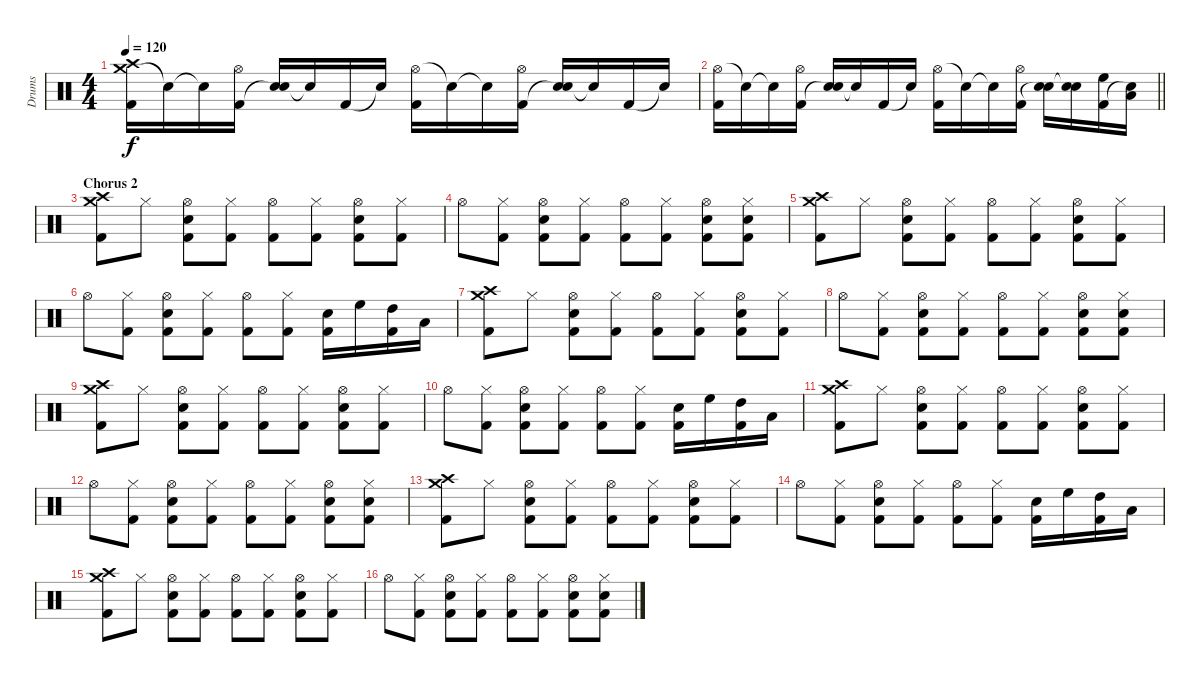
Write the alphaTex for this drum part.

\track ("Drums" "Drums") {instrument percussion}
\staff {score}
\articulation defaults
\ts (4 4)
\tempo 120
\clef neutral
\ks c
("Crash medium (hit)" "Crash high (hit)" "Kick (hit) 2").16{dy f} "Snare (hit)"{t}.16 "Snare (hit)"{t}.16 ("Hi-Hat (open)" "Kick (hit) 2").16 ("Electric Snare (hit)" "Snare (hit)"{t}).16 "Snare (hit)"{t}.16 "Kick (hit) 2".16 "Snare (hit)"{t}.16 ("Hi-Hat (open)" "Kick (hit) 2").16 "Snare (hit)"{t}.16 "Snare (hit)"{t}.16 ("Hi-Hat (open)" "Kick (hit) 2").16 ("Electric Snare (hit)" "Snare (hit)"{t}).16 "Snare (hit)"{t}.16 "Kick (hit) 2".16 "Snare (hit)"{t}.16 |
\barLineRight lightlight
("Hi-Hat (open)" "Kick (hit) 2").16 "Snare (hit)"{t}.16 "Snare (hit)"{t}.16 ("Hi-Hat (open)" "Kick (hit) 2").16 ("Electric Snare (hit)" "Snare (hit)"{t}).16 "Snare (hit)"{t}.16 "Kick (hit) 2".16 "Snare (hit)"{t}.16 ("Hi-Hat (open)" "Kick (hit) 2").16 "Snare (hit)"{t}.16 "Snare (hit)"{t}.16 ("Hi-Hat (open)" "Kick (hit) 2").16 ("Electric Snare (hit)" "Snare (hit)"{t}).16 ("Electric Snare (hit)" "Snare (hit)"{t}).16 ("High Floor Tom (hit)" "Kick (hit) 2").16 ("Low Tom (hit)" "Snare (hit)"{t}).16 |
\section ("" "Chorus 2")
("Crash medium (hit)" "Crash high (hit)" "Kick (hit) 2").8 "Hi-Hat (closed)".8 ("Hi-Hat (open)" "Electric Snare (hit)" "Kick (hit) 2").8 ("Hi-Hat (closed)" "Kick (hit) 2").8 ("Hi-Hat (open)" "Kick (hit) 2").8 ("Hi-Hat (closed)" "Kick (hit) 2").8 ("Hi-Hat (open)" "Electric Snare (hit)" "Kick (hit) 2").8 ("Hi-Hat (closed)" "Kick (hit) 2").8 |
"Hi-Hat (open)".8 ("Hi-Hat (closed)" "Kick (hit) 2").8 ("Hi-Hat (open)" "Electric Snare (hit)" "Kick (hit) 2").8 ("Hi-Hat (closed)" "Kick (hit) 2").8 ("Hi-Hat (open)" "Kick (hit) 2").8 ("Hi-Hat (closed)" "Kick (hit) 2").8 ("Hi-Hat (open)" "Electric Snare (hit)" "Kick (hit) 2").8 ("Hi-Hat (closed)" "Electric Snare (hit)" "Kick (hit) 2").8 |
("Crash medium (hit)" "Crash high (hit)" "Kick (hit) 2").8 "Hi-Hat (closed)".8 ("Hi-Hat (open)" "Electric Snare (hit)" "Kick (hit) 2").8 ("Hi-Hat (closed)" "Kick (hit) 2").8 ("Hi-Hat (open)" "Kick (hit) 2").8 ("Hi-Hat (closed)" "Kick (hit) 2").8 ("Hi-Hat (open)" "Electric Snare (hit)" "Kick (hit) 2").8 ("Hi-Hat (closed)" "Kick (hit) 2").8 |
"Hi-Hat (open)".8 ("Hi-Hat (closed)" "Kick (hit) 2").8 ("Hi-Hat (open)" "Electric Snare (hit)" "Kick (hit) 2").8 ("Hi-Hat (closed)" "Kick (hit) 2").8 ("Hi-Hat (open)" "Kick (hit) 2").8 ("Hi-Hat (closed)" "Kick (hit) 2").8 ("Electric Snare (hit)" "Kick (hit) 2").16 "High Floor Tom (hit)".16 ("High Tom (hit)" "Kick (hit) 2").16 "Low Tom (hit)".16 |
("Crash medium (hit)" "Crash high (hit)" "Kick (hit) 2").8 "Hi-Hat (closed)".8 ("Hi-Hat (open)" "Electric Snare (hit)" "Kick (hit) 2").8 ("Hi-Hat (closed)" "Kick (hit) 2").8 ("Hi-Hat (open)" "Kick (hit) 2").8 ("Hi-Hat (closed)" "Kick (hit) 2").8 ("Hi-Hat (open)" "Electric Snare (hit)" "Kick (hit) 2").8 ("Hi-Hat (closed)" "Kick (hit) 2").8 |
"Hi-Hat (open)".8 ("Hi-Hat (closed)" "Kick (hit) 2").8 ("Hi-Hat (open)" "Electric Snare (hit)" "Kick (hit) 2").8 ("Hi-Hat (closed)" "Kick (hit) 2").8 ("Hi-Hat (open)" "Kick (hit) 2").8 ("Hi-Hat (closed)" "Kick (hit) 2").8 ("Hi-Hat (open)" "Electric Snare (hit)" "Kick (hit) 2").8 ("Hi-Hat (closed)" "Electric Snare (hit)" "Kick (hit) 2").8 |
("Crash medium (hit)" "Crash high (hit)" "Kick (hit) 2").8 "Hi-Hat (closed)".8 ("Hi-Hat (open)" "Electric Snare (hit)" "Kick (hit) 2").8 ("Hi-Hat (closed)" "Kick (hit) 2").8 ("Hi-Hat (open)" "Kick (hit) 2").8 ("Hi-Hat (closed)" "Kick (hit) 2").8 ("Hi-Hat (open)" "Electric Snare (hit)" "Kick (hit) 2").8 ("Hi-Hat (closed)" "Kick (hit) 2").8 |
"Hi-Hat (open)".8 ("Hi-Hat (closed)" "Kick (hit) 2").8 ("Hi-Hat (open)" "Electric Snare (hit)" "Kick (hit) 2").8 ("Hi-Hat (closed)" "Kick (hit) 2").8 ("Hi-Hat (open)" "Kick (hit) 2").8 ("Hi-Hat (closed)" "Kick (hit) 2").8 ("Electric Snare (hit)" "Kick (hit) 2").16 "High Floor Tom (hit)".16 ("High Tom (hit)" "Kick (hit) 2").16 "Low Tom (hit)".16 |
("Crash medium (hit)" "Crash high (hit)" "Kick (hit) 2").8 "Hi-Hat (closed)".8 ("Hi-Hat (open)" "Electric Snare (hit)" "Kick (hit) 2").8 ("Hi-Hat (closed)" "Kick (hit) 2").8 ("Hi-Hat (open)" "Kick (hit) 2").8 ("Hi-Hat (closed)" "Kick (hit) 2").8 ("Hi-Hat (open)" "Electric Snare (hit)" "Kick (hit) 2").8 ("Hi-Hat (closed)" "Kick (hit) 2").8 |
"Hi-Hat (open)".8 ("Hi-Hat (closed)" "Kick (hit) 2").8 ("Hi-Hat (open)" "Electric Snare (hit)" "Kick (hit) 2").8 ("Hi-Hat (closed)" "Kick (hit) 2").8 ("Hi-Hat (open)" "Kick (hit) 2").8 ("Hi-Hat (closed)" "Kick (hit) 2").8 ("Hi-Hat (open)" "Electric Snare (hit)" "Kick (hit) 2").8 ("Hi-Hat (closed)" "Electric Snare (hit)" "Kick (hit) 2").8 |
("Crash medium (hit)" "Crash high (hit)" "Kick (hit) 2").8 "Hi-Hat (closed)".8 ("Hi-Hat (open)" "Electric Snare (hit)" "Kick (hit) 2").8 ("Hi-Hat (closed)" "Kick (hit) 2").8 ("Hi-Hat (open)" "Kick (hit) 2").8 ("Hi-Hat (closed)" "Kick (hit) 2").8 ("Hi-Hat (open)" "Electric Snare (hit)" "Kick (hit) 2").8 ("Hi-Hat (closed)" "Kick (hit) 2").8 |
"Hi-Hat (open)".8 ("Hi-Hat (closed)" "Kick (hit) 2").8 ("Hi-Hat (open)" "Electric Snare (hit)" "Kick (hit) 2").8 ("Hi-Hat (closed)" "Kick (hit) 2").8 ("Hi-Hat (open)" "Kick (hit) 2").8 ("Hi-Hat (closed)" "Kick (hit) 2").8 ("Electric Snare (hit)" "Kick (hit) 2").16 "High Floor Tom (hit)".16 ("High Tom (hit)" "Kick (hit) 2").16 "Low Tom (hit)".16 |
("Crash medium (hit)" "Crash high (hit)" "Kick (hit) 2").8 "Hi-Hat (closed)".8 ("Hi-Hat (open)" "Electric Snare (hit)" "Kick (hit) 2").8 ("Hi-Hat (closed)" "Kick (hit) 2").8 ("Hi-Hat (open)" "Kick (hit) 2").8 ("Hi-Hat (closed)" "Kick (hit) 2").8 ("Hi-Hat (open)" "Electric Snare (hit)" "Kick (hit) 2").8 ("Hi-Hat (closed)" "Kick (hit) 2").8 |
"Hi-Hat (open)".8 ("Hi-Hat (closed)" "Kick (hit) 2").8 ("Hi-Hat (open)" "Electric Snare (hit)" "Kick (hit) 2").8 ("Hi-Hat (closed)" "Kick (hit) 2").8 ("Hi-Hat (open)" "Kick (hit) 2").8 ("Hi-Hat (closed)" "Kick (hit) 2").8 ("Hi-Hat (open)" "Electric Snare (hit)" "Kick (hit) 2").8 ("Hi-Hat (closed)" "Electric Snare (hit)" "Kick (hit) 2").8
